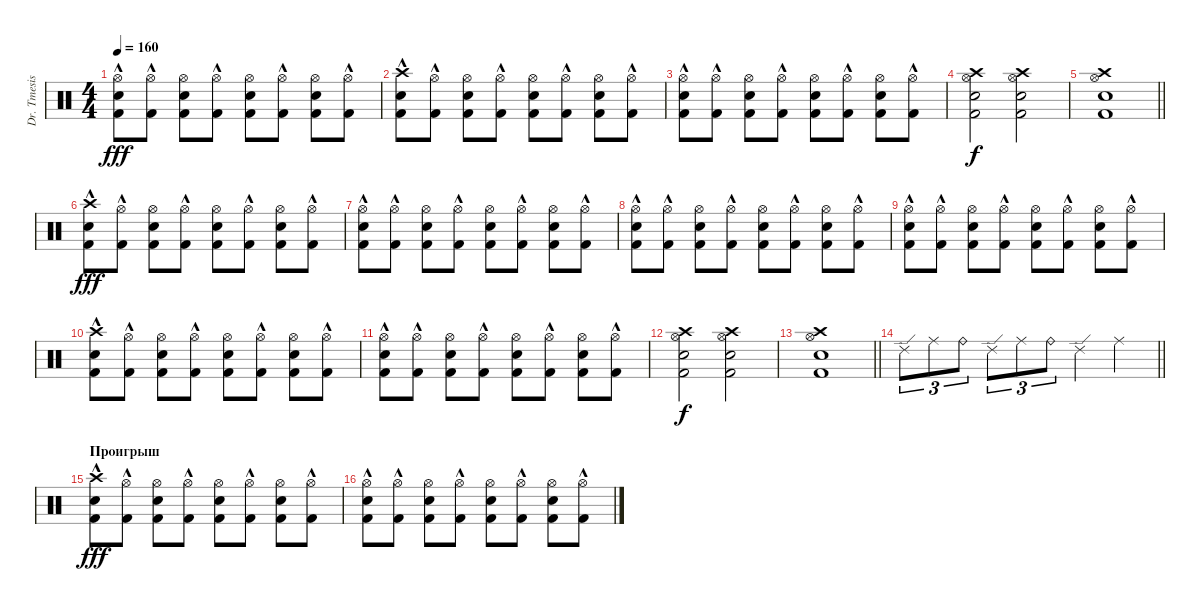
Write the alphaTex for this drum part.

\track ("Dr. Tmesis" "Dr. Tmesis") {instrument percussion}
\staff {score}
\articulation defaults
\ts (4 4)
\tempo 160
\clef neutral
\ks c
("Kick (hit) 2"{hac} "Snare (hit) 2" "Hi-Hat (open)").8{dy fff} ("Kick (hit) 2"{hac} "Hi-Hat (open)").8 ("Snare (hit) 2" "Hi-Hat (open)" "Kick (hit) 2").8 ("Kick (hit) 2"{hac} "Hi-Hat (open)").8 ("Snare (hit) 2" "Hi-Hat (open)" "Kick (hit) 2").8 ("Kick (hit) 2"{hac} "Hi-Hat (open)").8 ("Snare (hit) 2" "Hi-Hat (open)" "Kick (hit) 2").8 ("Kick (hit) 2"{hac} "Hi-Hat (open)").8 |
("Kick (hit) 2"{hac} "Snare (hit) 2" "Crash high (hit)").8 ("Kick (hit) 2"{hac} "Hi-Hat (open)").8 ("Snare (hit) 2" "Hi-Hat (open)" "Kick (hit) 2").8 ("Kick (hit) 2"{hac} "Hi-Hat (open)").8 ("Snare (hit) 2" "Hi-Hat (open)" "Kick (hit) 2").8 ("Kick (hit) 2"{hac} "Hi-Hat (open)").8 ("Snare (hit) 2" "Hi-Hat (open)" "Kick (hit) 2").8 ("Kick (hit) 2"{hac} "Hi-Hat (open)").8 |
("Kick (hit) 2"{hac} "Snare (hit) 2" "Hi-Hat (open)").8 ("Kick (hit) 2"{hac} "Hi-Hat (open)").8 ("Snare (hit) 2" "Hi-Hat (open)" "Kick (hit) 2").8 ("Kick (hit) 2"{hac} "Hi-Hat (open)").8 ("Snare (hit) 2" "Hi-Hat (open)" "Kick (hit) 2").8 ("Kick (hit) 2"{hac} "Hi-Hat (open)").8 ("Snare (hit) 2" "Hi-Hat (open)" "Kick (hit) 2").8 ("Kick (hit) 2"{hac} "Hi-Hat (open)").8 |
("Kick (hit) 2" "Snare (hit) 2" "Crash high (hit)" "Hi-Hat (open)").2{dy f} ("Kick (hit) 2" "Snare (hit) 2" "Crash high (hit)" "Hi-Hat (open)").2 |
\barLineRight lightlight
("Kick (hit) 2" "Snare (hit) 2" "Crash high (hit)" "Hi-Hat (open)").1 |
("Kick (hit) 2"{hac} "Snare (hit) 2" "Crash high (hit)").8{dy fff} ("Kick (hit) 2"{hac} "Hi-Hat (open)").8 ("Snare (hit) 2" "Hi-Hat (open)" "Kick (hit) 2").8 ("Kick (hit) 2"{hac} "Hi-Hat (open)").8 ("Snare (hit) 2" "Hi-Hat (open)" "Kick (hit) 2").8 ("Kick (hit) 2"{hac} "Hi-Hat (open)").8 ("Snare (hit) 2" "Hi-Hat (open)" "Kick (hit) 2").8 ("Kick (hit) 2"{hac} "Hi-Hat (open)").8 |
("Kick (hit) 2"{hac} "Snare (hit) 2" "Hi-Hat (open)").8 ("Kick (hit) 2"{hac} "Hi-Hat (open)").8 ("Snare (hit) 2" "Hi-Hat (open)" "Kick (hit) 2").8 ("Kick (hit) 2"{hac} "Hi-Hat (open)").8 ("Snare (hit) 2" "Hi-Hat (open)" "Kick (hit) 2").8 ("Kick (hit) 2"{hac} "Hi-Hat (open)").8 ("Snare (hit) 2" "Hi-Hat (open)" "Kick (hit) 2").8 ("Kick (hit) 2"{hac} "Hi-Hat (open)").8 |
("Kick (hit) 2"{hac} "Snare (hit) 2" "Hi-Hat (open)").8 ("Kick (hit) 2"{hac} "Hi-Hat (open)").8 ("Snare (hit) 2" "Hi-Hat (open)" "Kick (hit) 2").8 ("Kick (hit) 2"{hac} "Hi-Hat (open)").8 ("Snare (hit) 2" "Hi-Hat (open)" "Kick (hit) 2").8 ("Kick (hit) 2"{hac} "Hi-Hat (open)").8 ("Snare (hit) 2" "Hi-Hat (open)" "Kick (hit) 2").8 ("Kick (hit) 2"{hac} "Hi-Hat (open)").8 |
("Kick (hit) 2"{hac} "Snare (hit) 2" "Hi-Hat (open)").8 ("Kick (hit) 2"{hac} "Hi-Hat (open)").8 ("Snare (hit) 2" "Hi-Hat (open)" "Kick (hit) 2").8 ("Kick (hit) 2"{hac} "Hi-Hat (open)").8 ("Snare (hit) 2" "Hi-Hat (open)" "Kick (hit) 2").8 ("Kick (hit) 2"{hac} "Hi-Hat (open)").8 ("Snare (hit) 2" "Hi-Hat (open)" "Kick (hit) 2").8 ("Kick (hit) 2"{hac} "Hi-Hat (open)").8 |
("Kick (hit) 2"{hac} "Snare (hit) 2" "Crash high (hit)").8 ("Kick (hit) 2"{hac} "Hi-Hat (open)").8 ("Snare (hit) 2" "Hi-Hat (open)" "Kick (hit) 2").8 ("Kick (hit) 2"{hac} "Hi-Hat (open)").8 ("Snare (hit) 2" "Hi-Hat (open)" "Kick (hit) 2").8 ("Kick (hit) 2"{hac} "Hi-Hat (open)").8 ("Snare (hit) 2" "Hi-Hat (open)" "Kick (hit) 2").8 ("Kick (hit) 2"{hac} "Hi-Hat (open)").8 |
("Kick (hit) 2"{hac} "Snare (hit) 2" "Hi-Hat (open)").8 ("Kick (hit) 2"{hac} "Hi-Hat (open)").8 ("Snare (hit) 2" "Hi-Hat (open)" "Kick (hit) 2").8 ("Kick (hit) 2"{hac} "Hi-Hat (open)").8 ("Snare (hit) 2" "Hi-Hat (open)" "Kick (hit) 2").8 ("Kick (hit) 2"{hac} "Hi-Hat (open)").8 ("Snare (hit) 2" "Hi-Hat (open)" "Kick (hit) 2").8 ("Kick (hit) 2"{hac} "Hi-Hat (open)").8 |
("Kick (hit) 2" "Snare (hit) 2" "Crash high (hit)" "Hi-Hat (open)").2{dy f} ("Kick (hit) 2" "Snare (hit) 2" "Crash high (hit)" "Hi-Hat (open)").2 |
\barLineRight lightlight
("Kick (hit) 2" "Snare (hit) 2" "Crash high (hit)" "Hi-Hat (open)").1 |
\barLineRight lightlight "Ride (edge) 2".8{tu (3 2)} "Ride (middle)".8{tu (3 2)} "Ride (bell)".8{tu (3 2)} "Ride (edge) 2".8{tu (3 2)} "Ride (middle)".8{tu (3 2)} "Ride (bell)".8{tu (3 2)} "Ride (edge) 2".4 "Ride (middle)".4
|
\section ("" "Проигрыш")
("Kick (hit) 2"{hac} "Snare (hit) 2" "Crash high (hit)").8{dy fff} ("Kick (hit) 2"{hac} "Hi-Hat (open)").8 ("Snare (hit) 2" "Hi-Hat (open)" "Kick (hit) 2").8 ("Kick (hit) 2"{hac} "Hi-Hat (open)").8 ("Snare (hit) 2" "Hi-Hat (open)" "Kick (hit) 2").8 ("Kick (hit) 2"{hac} "Hi-Hat (open)").8 ("Snare (hit) 2" "Hi-Hat (open)" "Kick (hit) 2").8 ("Kick (hit) 2"{hac} "Hi-Hat (open)").8 |
("Kick (hit) 2"{hac} "Snare (hit) 2" "Hi-Hat (open)").8 ("Kick (hit) 2"{hac} "Hi-Hat (open)").8 ("Snare (hit) 2" "Hi-Hat (open)" "Kick (hit) 2").8 ("Kick (hit) 2"{hac} "Hi-Hat (open)").8 ("Snare (hit) 2" "Hi-Hat (open)" "Kick (hit) 2").8 ("Kick (hit) 2"{hac} "Hi-Hat (open)").8 ("Snare (hit) 2" "Hi-Hat (open)" "Kick (hit) 2").8 ("Kick (hit) 2"{hac} "Hi-Hat (open)").8
